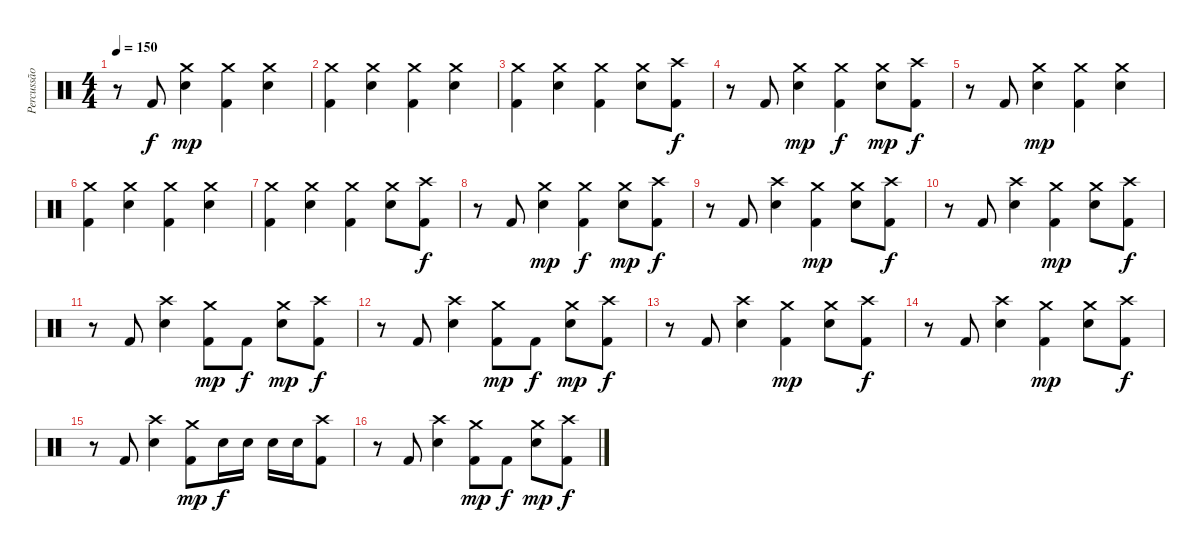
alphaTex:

\track ("Percussão" "Percussão") {instrument percussion}
\staff {score}
\articulation defaults
\ts (4 4)
\tempo 150
\clef neutral
\ks c
r.8{dy f} "Kick (hit) 2".8 ("Crash medium (hit)" "Snare (hit) 2").4{dy mp} ("Crash medium (hit)" "Kick (hit) 2").4 ("Crash medium (hit)" "Snare (hit) 2").4 |
("Crash medium (hit)" "Kick (hit) 2").4 ("Crash medium (hit)" "Snare (hit) 2").4 ("Crash medium (hit)" "Kick (hit) 2").4 ("Crash medium (hit)" "Snare (hit) 2").4 |
("Crash medium (hit)" "Kick (hit) 2").4 ("Crash medium (hit)" "Snare (hit) 2").4 ("Crash medium (hit)" "Kick (hit) 2").4 ("Crash medium (hit)" "Snare (hit) 2").8 ("Crash high (hit)" "Kick (hit) 2").8{dy f} |
r.8 "Kick (hit) 2".8 ("Crash medium (hit)" "Snare (hit) 2").4{dy mp} ("Crash medium (hit)" "Kick (hit) 2").4{dy f} ("Crash medium (hit)" "Snare (hit) 2").8{dy mp} ("Crash high (hit)" "Kick (hit) 2").8{dy f} |
r.8 "Kick (hit) 2".8 ("Crash medium (hit)" "Snare (hit) 2").4{dy mp} ("Crash medium (hit)" "Kick (hit) 2").4 ("Crash medium (hit)" "Snare (hit) 2").4 |
("Crash medium (hit)" "Kick (hit) 2").4 ("Crash medium (hit)" "Snare (hit) 2").4 ("Crash medium (hit)" "Kick (hit) 2").4 ("Crash medium (hit)" "Snare (hit) 2").4 |
("Crash medium (hit)" "Kick (hit) 2").4 ("Crash medium (hit)" "Snare (hit) 2").4 ("Crash medium (hit)" "Kick (hit) 2").4 ("Crash medium (hit)" "Snare (hit) 2").8 ("Crash high (hit)" "Kick (hit) 2").8{dy f} |
r.8 "Kick (hit) 2".8 ("Crash medium (hit)" "Snare (hit) 2").4{dy mp} ("Crash medium (hit)" "Kick (hit) 2").4{dy f} ("Crash medium (hit)" "Snare (hit) 2").8{dy mp} ("Crash high (hit)" "Kick (hit) 2").8{dy f} |
r.8 "Kick (hit) 2".8 ("Crash high (hit)" "Snare (hit) 2").4 ("Crash medium (hit)" "Kick (hit) 2").4{dy mp} ("Crash medium (hit)" "Snare (hit) 2").8 ("Crash high (hit)" "Kick (hit) 2").8{dy f} |
r.8 "Kick (hit) 2".8 ("Crash high (hit)" "Snare (hit) 2").4 ("Crash medium (hit)" "Kick (hit) 2").4{dy mp} ("Crash medium (hit)" "Snare (hit) 2").8 ("Crash high (hit)" "Kick (hit) 2").8{dy f} |
r.8 "Kick (hit) 2".8 ("Crash high (hit)" "Snare (hit) 2").4 ("Crash medium (hit)" "Kick (hit) 2").8{dy mp} "Kick (hit) 2".8{dy f} ("Crash medium (hit)" "Snare (hit) 2").8{dy mp} ("Crash high (hit)" "Kick (hit) 2").8{dy f} |
r.8 "Kick (hit) 2".8 ("Crash high (hit)" "Snare (hit) 2").4 ("Crash medium (hit)" "Kick (hit) 2").8{dy mp} "Kick (hit) 2".8{dy f} ("Crash medium (hit)" "Snare (hit) 2").8{dy mp} ("Crash high (hit)" "Kick (hit) 2").8{dy f} |
r.8 "Kick (hit) 2".8 ("Crash high (hit)" "Snare (hit) 2").4 ("Crash medium (hit)" "Kick (hit) 2").4{dy mp} ("Crash medium (hit)" "Snare (hit) 2").8 ("Crash high (hit)" "Kick (hit) 2").8{dy f} |
r.8 "Kick (hit) 2".8 ("Crash high (hit)" "Snare (hit) 2").4 ("Crash medium (hit)" "Kick (hit) 2").4{dy mp} ("Crash medium (hit)" "Snare (hit) 2").8 ("Crash high (hit)" "Kick (hit) 2").8{dy f} |
r.8 "Kick (hit) 2".8 ("Crash high (hit)" "Snare (hit) 2").4 ("Crash medium (hit)" "Kick (hit) 2").8{dy mp} "Snare (hit) 2".16{dy f} "Snare (hit) 2".16 "Snare (hit) 2".16 "Snare (hit) 2".16 ("Crash high (hit)" "Kick (hit) 2").8 |
r.8 "Kick (hit) 2".8 ("Crash high (hit)" "Snare (hit) 2").4 ("Crash medium (hit)" "Kick (hit) 2").8{dy mp} "Kick (hit) 2".8{dy f} ("Crash medium (hit)" "Snare (hit) 2").8{dy mp} ("Crash high (hit)" "Kick (hit) 2").8{dy f}
